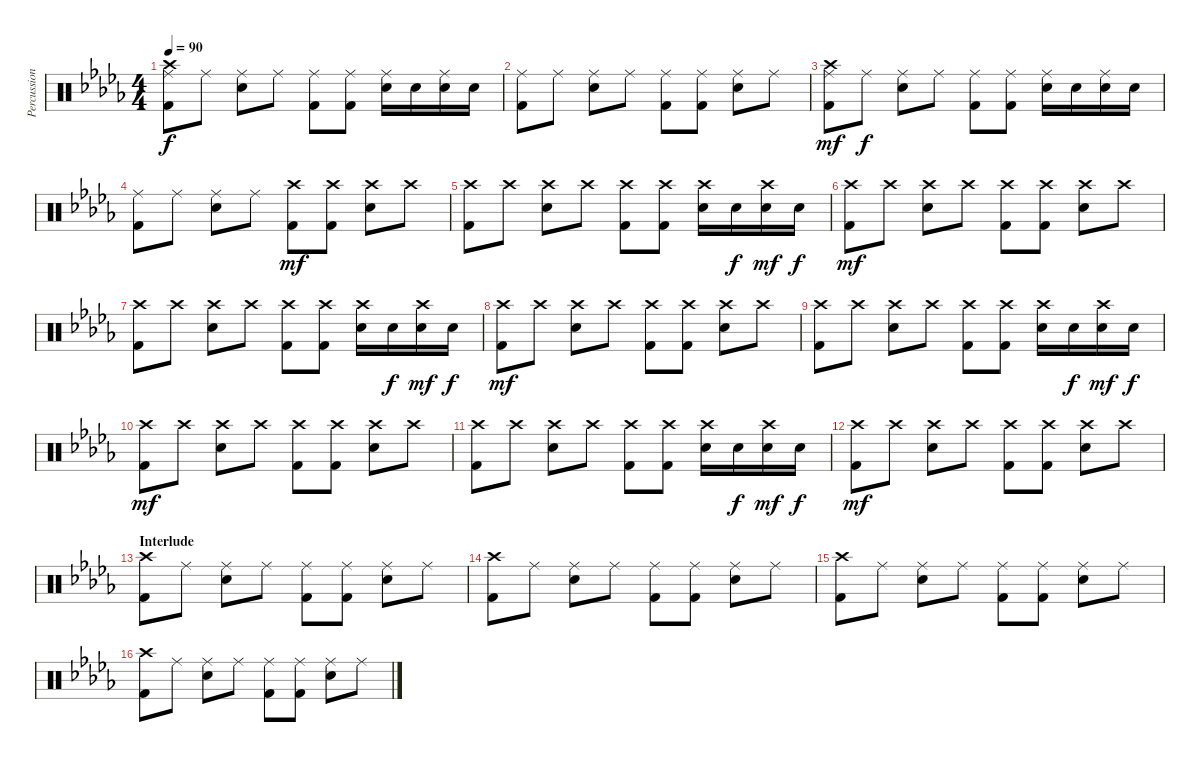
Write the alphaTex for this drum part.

\track ("Percussion" "Percussion") {instrument percussion}
\staff {score}
\articulation defaults
\ts (4 4)
\tempo 90
\clef neutral
\ks db
("Ride (middle)" "Crash high (hit)" "Kick (hit) 2").8{dy f} "Ride (middle)".8 ("Ride (middle)" "Snare (hit) 2").8 "Ride (middle)".8 ("Ride (middle)" "Kick (hit) 2").8 ("Ride (middle)" "Kick (hit) 2").8 ("Ride (middle)" "Snare (hit) 2").16 "Snare (hit) 2".16 ("Ride (middle)" "Snare (hit) 2").16 "Snare (hit) 2".16 |
("Ride (middle)" "Kick (hit) 2").8 "Ride (middle)".8 ("Ride (middle)" "Snare (hit) 2").8 "Ride (middle)".8 ("Ride (middle)" "Kick (hit) 2").8 ("Ride (middle)" "Kick (hit) 2").8 ("Ride (middle)" "Snare (hit) 2").8 "Ride (middle)".8 |
("Ride (middle)" "Crash high (hit)" "Kick (hit) 2").8{dy mf} "Ride (middle)".8{dy f} ("Ride (middle)" "Snare (hit) 2").8 "Ride (middle)".8 ("Ride (middle)" "Kick (hit) 2").8 ("Ride (middle)" "Kick (hit) 2").8 ("Ride (middle)" "Snare (hit) 2").16 "Snare (hit) 2".16 ("Ride (middle)" "Snare (hit) 2").16 "Snare (hit) 2".16 |
("Ride (middle)" "Kick (hit) 2").8 "Ride (middle)".8 ("Ride (middle)" "Snare (hit) 2").8 "Ride (middle)".8 ("Crash high (hit)" "Kick (hit) 2").8{dy mf} ("Crash high (hit)" "Kick (hit) 2").8 ("Crash high (hit)" "Snare (hit) 2").8 "Crash high (hit)".8 |
("Crash high (hit)" "Kick (hit) 2").8 "Crash high (hit)".8 ("Crash high (hit)" "Snare (hit) 2").8 "Crash high (hit)".8 ("Crash high (hit)" "Kick (hit) 2").8 ("Crash high (hit)" "Kick (hit) 2").8 ("Crash high (hit)" "Snare (hit) 2").16 "Snare (hit) 2".16{dy f} ("Crash high (hit)" "Snare (hit) 2").16{dy mf} "Snare (hit) 2".16{dy f} |
("Crash high (hit)" "Kick (hit) 2").8{dy mf} "Crash high (hit)".8 ("Crash high (hit)" "Snare (hit) 2").8 "Crash high (hit)".8 ("Crash high (hit)" "Kick (hit) 2").8 ("Crash high (hit)" "Kick (hit) 2").8 ("Crash high (hit)" "Snare (hit) 2").8 "Crash high (hit)".8 |
("Crash high (hit)" "Kick (hit) 2").8 "Crash high (hit)".8 ("Crash high (hit)" "Snare (hit) 2").8 "Crash high (hit)".8 ("Crash high (hit)" "Kick (hit) 2").8 ("Crash high (hit)" "Kick (hit) 2").8 ("Crash high (hit)" "Snare (hit) 2").16 "Snare (hit) 2".16{dy f} ("Crash high (hit)" "Snare (hit) 2").16{dy mf} "Snare (hit) 2".16{dy f} |
("Crash high (hit)" "Kick (hit) 2").8{dy mf} "Crash high (hit)".8 ("Crash high (hit)" "Snare (hit) 2").8 "Crash high (hit)".8 ("Crash high (hit)" "Kick (hit) 2").8 ("Crash high (hit)" "Kick (hit) 2").8 ("Crash high (hit)" "Snare (hit) 2").8 "Crash high (hit)".8 |
("Crash high (hit)" "Kick (hit) 2").8 "Crash high (hit)".8 ("Crash high (hit)" "Snare (hit) 2").8 "Crash high (hit)".8 ("Crash high (hit)" "Kick (hit) 2").8 ("Crash high (hit)" "Kick (hit) 2").8 ("Crash high (hit)" "Snare (hit) 2").16 "Snare (hit) 2".16{dy f} ("Crash high (hit)" "Snare (hit) 2").16{dy mf} "Snare (hit) 2".16{dy f} |
("Crash high (hit)" "Kick (hit) 2").8{dy mf} "Crash high (hit)".8 ("Crash high (hit)" "Snare (hit) 2").8 "Crash high (hit)".8 ("Crash high (hit)" "Kick (hit) 2").8 ("Crash high (hit)" "Kick (hit) 2").8 ("Crash high (hit)" "Snare (hit) 2").8 "Crash high (hit)".8 |
("Crash high (hit)" "Kick (hit) 2").8 "Crash high (hit)".8 ("Crash high (hit)" "Snare (hit) 2").8 "Crash high (hit)".8 ("Crash high (hit)" "Kick (hit) 2").8 ("Crash high (hit)" "Kick (hit) 2").8 ("Crash high (hit)" "Snare (hit) 2").16 "Snare (hit) 2".16{dy f} ("Crash high (hit)" "Snare (hit) 2").16{dy mf} "Snare (hit) 2".16{dy f} |
("Crash high (hit)" "Kick (hit) 2").8{dy mf} "Crash high (hit)".8 ("Crash high (hit)" "Snare (hit) 2").8 "Crash high (hit)".8 ("Crash high (hit)" "Kick (hit) 2").8 ("Crash high (hit)" "Kick (hit) 2").8 ("Crash high (hit)" "Snare (hit) 2").8 "Crash high (hit)".8 |
\section ("" "Interlude")
("Crash high (hit)" "Kick (hit) 2").8 "Ride (middle)".8 ("Ride (middle)" "Snare (hit) 2").8 "Ride (middle)".8 ("Ride (middle)" "Kick (hit) 2").8 ("Ride (middle)" "Kick (hit) 2").8 ("Ride (middle)" "Snare (hit) 2").8 "Ride (middle)".8 |
("Crash high (hit)" "Kick (hit) 2").8 "Ride (middle)".8 ("Ride (middle)" "Snare (hit) 2").8 "Ride (middle)".8 ("Ride (middle)" "Kick (hit) 2").8 ("Ride (middle)" "Kick (hit) 2").8 ("Ride (middle)" "Snare (hit) 2").8 "Ride (middle)".8 |
("Crash high (hit)" "Kick (hit) 2").8 "Ride (middle)".8 ("Ride (middle)" "Snare (hit) 2").8 "Ride (middle)".8 ("Ride (middle)" "Kick (hit) 2").8 ("Ride (middle)" "Kick (hit) 2").8 ("Ride (middle)" "Snare (hit) 2").8 "Ride (middle)".8 |
("Crash high (hit)" "Kick (hit) 2").8 "Ride (middle)".8 ("Ride (middle)" "Snare (hit) 2").8 "Ride (middle)".8 ("Ride (middle)" "Kick (hit) 2").8 ("Ride (middle)" "Kick (hit) 2").8 ("Ride (middle)" "Snare (hit) 2").8 "Ride (middle)".8
